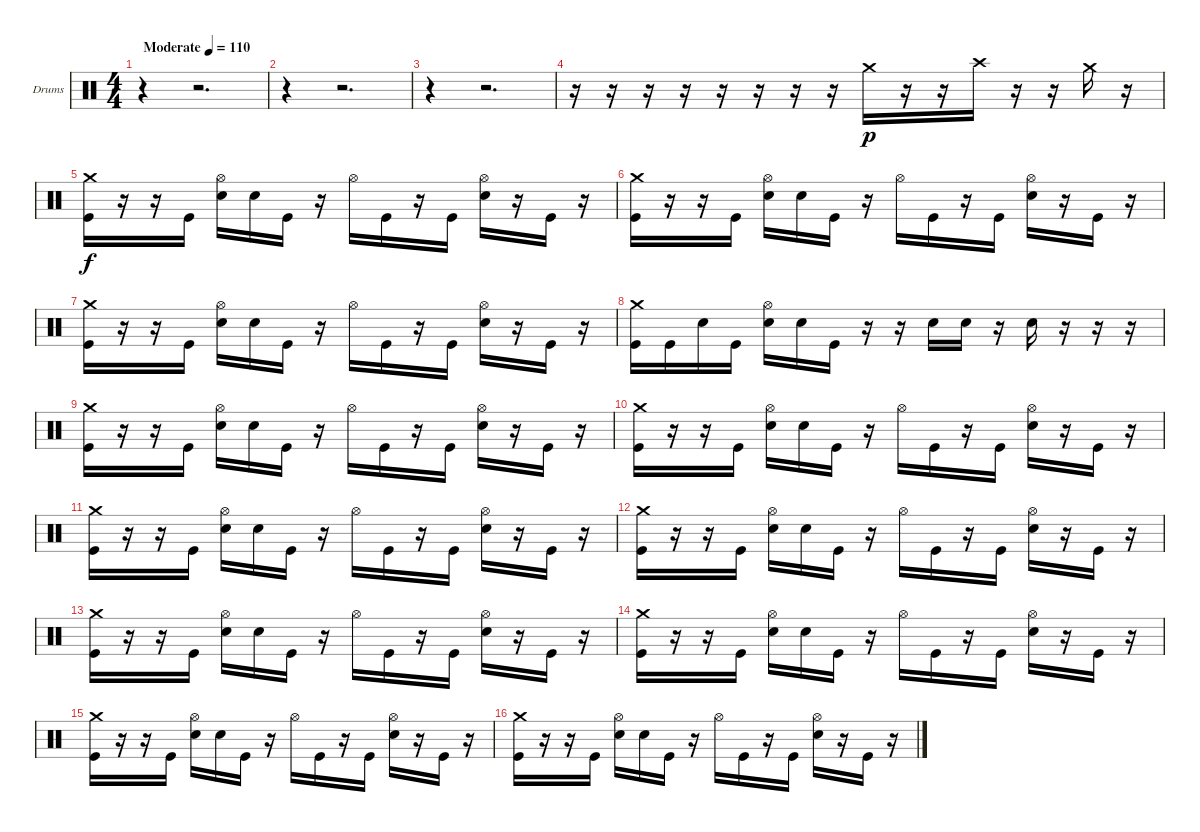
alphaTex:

\bracketExtendMode groupsimilarinstruments
\firstSystemTrackNameOrientation horizontal
\otherSystemsTrackNameOrientation horizontal
\track ("Drumkit" "Drums") {instrument percussion}
\staff {score}
\articulation defaults
\ts (4 4)
\beaming (8 2 2 2 2)
\tempo (110 "Moderate")
\clef neutral
\ks c
r.4{dy p} r.2{d} |
r.4 r.2{d} |
r.4 r.2{d} |
r.16 r.16 r.16 r.16 r.16 r.16 r.16 r.16 "Crash medium (hit)".16 r.16 r.16 "Crash high (hit)".16 r.16 r.16 "Crash medium (hit)".16 r.16 |
("Crash medium (hit)" "Kick (hit)").16{dy f} r.16 r.16 "Kick (hit)".16 ("Hi-Hat (open)" "Snare (hit) 2").16 "Snare (hit) 2".16 "Kick (hit)".16 r.16 "Hi-Hat (open)".16 "Kick (hit)".16 r.16 "Kick (hit)".16 ("Hi-Hat (open)" "Snare (hit) 2").16 r.16 "Kick (hit)".16 r.16 |
("Crash medium (hit)" "Kick (hit)").16 r.16 r.16 "Kick (hit)".16 ("Hi-Hat (open)" "Snare (hit) 2").16 "Snare (hit) 2".16 "Kick (hit)".16 r.16 "Hi-Hat (open)".16 "Kick (hit)".16 r.16 "Kick (hit)".16 ("Hi-Hat (open)" "Snare (hit) 2").16 r.16 "Kick (hit)".16 r.16 |
("Crash medium (hit)" "Kick (hit)").16 r.16 r.16 "Kick (hit)".16 ("Hi-Hat (open)" "Snare (hit) 2").16 "Snare (hit) 2".16 "Kick (hit)".16 r.16 "Hi-Hat (open)".16 "Kick (hit)".16 r.16 "Kick (hit)".16 ("Hi-Hat (open)" "Snare (hit) 2").16 r.16 "Kick (hit)".16 r.16 |
("Crash medium (hit)" "Kick (hit)").16 "Kick (hit)".16 "Snare (hit) 2".16 "Kick (hit)".16 ("Hi-Hat (open)" "Snare (hit) 2").16 "Snare (hit) 2".16 "Kick (hit)".16 r.16 r.16 "Snare (hit) 2".16 "Snare (hit) 2".16 r.16 "Snare (hit) 2".16 r.16 r.16 r.16 |
("Crash medium (hit)" "Kick (hit)").16 r.16 r.16 "Kick (hit)".16 ("Hi-Hat (open)" "Snare (hit) 2").16 "Snare (hit) 2".16 "Kick (hit)".16 r.16 "Hi-Hat (open)".16 "Kick (hit)".16 r.16 "Kick (hit)".16 ("Hi-Hat (open)" "Snare (hit) 2").16 r.16 "Kick (hit)".16 r.16 |
("Crash medium (hit)" "Kick (hit)").16 r.16 r.16 "Kick (hit)".16 ("Hi-Hat (open)" "Snare (hit) 2").16 "Snare (hit) 2".16 "Kick (hit)".16 r.16 "Hi-Hat (open)".16 "Kick (hit)".16 r.16 "Kick (hit)".16 ("Hi-Hat (open)" "Snare (hit) 2").16 r.16 "Kick (hit)".16 r.16 |
("Crash medium (hit)" "Kick (hit)").16 r.16 r.16 "Kick (hit)".16 ("Hi-Hat (open)" "Snare (hit) 2").16 "Snare (hit) 2".16 "Kick (hit)".16 r.16 "Hi-Hat (open)".16 "Kick (hit)".16 r.16 "Kick (hit)".16 ("Hi-Hat (open)" "Snare (hit) 2").16 r.16 "Kick (hit)".16 r.16 |
("Crash medium (hit)" "Kick (hit)").16 r.16 r.16 "Kick (hit)".16 ("Hi-Hat (open)" "Snare (hit) 2").16 "Snare (hit) 2".16 "Kick (hit)".16 r.16 "Hi-Hat (open)".16 "Kick (hit)".16 r.16 "Kick (hit)".16 ("Hi-Hat (open)" "Snare (hit) 2").16 r.16 "Kick (hit)".16 r.16 |
("Crash medium (hit)" "Kick (hit)").16 r.16 r.16 "Kick (hit)".16 ("Hi-Hat (open)" "Snare (hit) 2").16 "Snare (hit) 2".16 "Kick (hit)".16 r.16 "Hi-Hat (open)".16 "Kick (hit)".16 r.16 "Kick (hit)".16 ("Hi-Hat (open)" "Snare (hit) 2").16 r.16 "Kick (hit)".16 r.16 |
("Crash medium (hit)" "Kick (hit)").16 r.16 r.16 "Kick (hit)".16 ("Hi-Hat (open)" "Snare (hit) 2").16 "Snare (hit) 2".16 "Kick (hit)".16 r.16 "Hi-Hat (open)".16 "Kick (hit)".16 r.16 "Kick (hit)".16 ("Hi-Hat (open)" "Snare (hit) 2").16 r.16 "Kick (hit)".16 r.16 |
("Crash medium (hit)" "Kick (hit)").16 r.16 r.16 "Kick (hit)".16 ("Hi-Hat (open)" "Snare (hit) 2").16 "Snare (hit) 2".16 "Kick (hit)".16 r.16 "Hi-Hat (open)".16 "Kick (hit)".16 r.16 "Kick (hit)".16 ("Hi-Hat (open)" "Snare (hit) 2").16 r.16 "Kick (hit)".16 r.16 |
("Crash medium (hit)" "Kick (hit)").16 r.16 r.16 "Kick (hit)".16 ("Hi-Hat (open)" "Snare (hit) 2").16 "Snare (hit) 2".16 "Kick (hit)".16 r.16 "Hi-Hat (open)".16 "Kick (hit)".16 r.16 "Kick (hit)".16 ("Hi-Hat (open)" "Snare (hit) 2").16 r.16 "Kick (hit)".16 r.16
